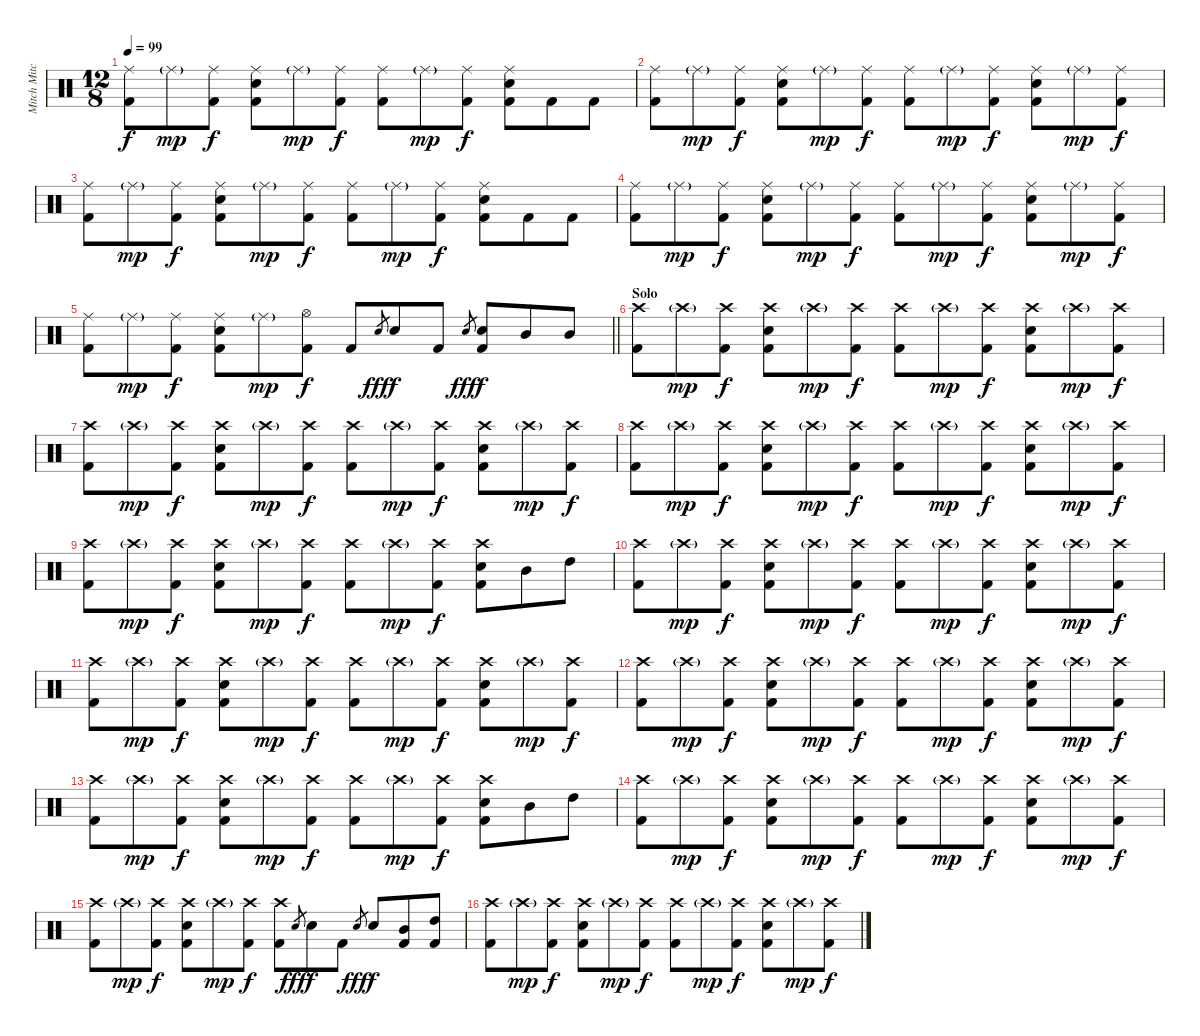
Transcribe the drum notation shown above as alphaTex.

\track ("Mitch Mitchell" "Mitch Mitc") {instrument percussion}
\staff {score}
\articulation defaults
\ts (12 8)
\tempo 99
\clef neutral
\ks c
("Ride (middle)" "Kick (hit) 2").8{dy f} "Ride (middle)"{g}.8{dy mp} ("Ride (middle)" "Kick (hit) 2").8{dy f} ("Ride (middle)" "Electric Snare (hit)" "Kick (hit) 2").8 "Ride (middle)"{g}.8{dy mp} ("Ride (middle)" "Kick (hit) 2").8{dy f} ("Ride (middle)" "Kick (hit) 2").8 "Ride (middle)"{g}.8{dy mp} ("Ride (middle)" "Kick (hit) 2").8{dy f} ("Ride (middle)" "Electric Snare (hit)" "Kick (hit) 2").8 "Kick (hit) 2".8 "Kick (hit) 2".8 |
("Ride (middle)" "Kick (hit) 2").8 "Ride (middle)"{g}.8{dy mp} ("Ride (middle)" "Kick (hit) 2").8{dy f} ("Ride (middle)" "Electric Snare (hit)" "Kick (hit) 2").8 "Ride (middle)"{g}.8{dy mp} ("Ride (middle)" "Kick (hit) 2").8{dy f} ("Ride (middle)" "Kick (hit) 2").8 "Ride (middle)"{g}.8{dy mp} ("Ride (middle)" "Kick (hit) 2").8{dy f} ("Ride (middle)" "Electric Snare (hit)" "Kick (hit) 2").8 "Ride (middle)"{g}.8{dy mp} ("Ride (middle)" "Kick (hit) 2").8{dy f} |
("Ride (middle)" "Kick (hit) 2").8 "Ride (middle)"{g}.8{dy mp} ("Ride (middle)" "Kick (hit) 2").8{dy f} ("Ride (middle)" "Electric Snare (hit)" "Kick (hit) 2").8 "Ride (middle)"{g}.8{dy mp} ("Ride (middle)" "Kick (hit) 2").8{dy f} ("Ride (middle)" "Kick (hit) 2").8 "Ride (middle)"{g}.8{dy mp} ("Ride (middle)" "Kick (hit) 2").8{dy f} ("Ride (middle)" "Electric Snare (hit)" "Kick (hit) 2").8 "Kick (hit) 2".8 "Kick (hit) 2".8 |
("Ride (middle)" "Kick (hit) 2").8 "Ride (middle)"{g}.8{dy mp} ("Ride (middle)" "Kick (hit) 2").8{dy f} ("Ride (middle)" "Electric Snare (hit)" "Kick (hit) 2").8 "Ride (middle)"{g}.8{dy mp} ("Ride (middle)" "Kick (hit) 2").8{dy f} ("Ride (middle)" "Kick (hit) 2").8 "Ride (middle)"{g}.8{dy mp} ("Ride (middle)" "Kick (hit) 2").8{dy f} ("Ride (middle)" "Electric Snare (hit)" "Kick (hit) 2").8 "Ride (middle)"{g}.8{dy mp} ("Ride (middle)" "Kick (hit) 2").8{dy f} |
\barLineRight lightlight
("Ride (middle)" "Kick (hit) 2").8 "Ride (middle)"{g}.8{dy mp} ("Ride (middle)" "Kick (hit) 2").8{dy f} ("Ride (middle)" "Electric Snare (hit)" "Kick (hit) 2").8 "Ride (middle)"{g}.8{dy mp} ("Hi-Hat (open)" "Kick (hit) 2").8{dy f} "Kick (hit) 2".8 "Electric Snare (hit)".8{gr dy fff} "Electric Snare (hit)".8{dy f} "Kick (hit) 2".8 "Electric Snare (hit)".8{gr dy fff} ("Electric Snare (hit)" "Kick (hit) 2").8{dy f} "Mid Tom (hit)".8 "Mid Tom (hit)".8 |
\section ("" "Solo")
("Crash high (hit)" "Kick (hit) 2").8 "Crash high (hit)"{g}.8{dy mp} ("Crash high (hit)" "Kick (hit) 2").8{dy f} ("Crash high (hit)" "Electric Snare (hit)" "Kick (hit) 2").8 "Crash high (hit)"{g}.8{dy mp} ("Crash high (hit)" "Kick (hit) 2").8{dy f} ("Crash high (hit)" "Kick (hit) 2").8 "Crash high (hit)"{g}.8{dy mp} ("Crash high (hit)" "Kick (hit) 2").8{dy f} ("Crash high (hit)" "Electric Snare (hit)" "Kick (hit) 2").8 "Crash high (hit)"{g}.8{dy mp} ("Crash high (hit)" "Kick (hit) 2").8{dy f} |
("Crash high (hit)" "Kick (hit) 2").8 "Crash high (hit)"{g}.8{dy mp} ("Crash high (hit)" "Kick (hit) 2").8{dy f} ("Crash high (hit)" "Electric Snare (hit)" "Kick (hit) 2").8 "Crash high (hit)"{g}.8{dy mp} ("Crash high (hit)" "Kick (hit) 2").8{dy f} ("Crash high (hit)" "Kick (hit) 2").8 "Crash high (hit)"{g}.8{dy mp} ("Crash high (hit)" "Kick (hit) 2").8{dy f} ("Crash high (hit)" "Electric Snare (hit)" "Kick (hit) 2").8 "Crash high (hit)"{g}.8{dy mp} ("Crash high (hit)" "Kick (hit) 2").8{dy f} |
("Crash high (hit)" "Kick (hit) 2").8 "Crash high (hit)"{g}.8{dy mp} ("Crash high (hit)" "Kick (hit) 2").8{dy f} ("Crash high (hit)" "Electric Snare (hit)" "Kick (hit) 2").8 "Crash high (hit)"{g}.8{dy mp} ("Crash high (hit)" "Kick (hit) 2").8{dy f} ("Crash high (hit)" "Kick (hit) 2").8 "Crash high (hit)"{g}.8{dy mp} ("Crash high (hit)" "Kick (hit) 2").8{dy f} ("Crash high (hit)" "Electric Snare (hit)" "Kick (hit) 2").8 "Crash high (hit)"{g}.8{dy mp} ("Crash high (hit)" "Kick (hit) 2").8{dy f} |
("Crash high (hit)" "Kick (hit) 2").8 "Crash high (hit)"{g}.8{dy mp} ("Crash high (hit)" "Kick (hit) 2").8{dy f} ("Crash high (hit)" "Electric Snare (hit)" "Kick (hit) 2").8 "Crash high (hit)"{g}.8{dy mp} ("Crash high (hit)" "Kick (hit) 2").8{dy f} ("Crash high (hit)" "Kick (hit) 2").8 "Crash high (hit)"{g}.8{dy mp} ("Crash high (hit)" "Kick (hit) 2").8{dy f} ("Crash high (hit)" "Electric Snare (hit)" "Kick (hit) 2").8 "Mid Tom (hit)".8 "High Tom (hit)".8 |
("Crash high (hit)" "Kick (hit) 2").8 "Crash high (hit)"{g}.8{dy mp} ("Crash high (hit)" "Kick (hit) 2").8{dy f} ("Crash high (hit)" "Electric Snare (hit)" "Kick (hit) 2").8 "Crash high (hit)"{g}.8{dy mp} ("Crash high (hit)" "Kick (hit) 2").8{dy f} ("Crash high (hit)" "Kick (hit) 2").8 "Crash high (hit)"{g}.8{dy mp} ("Crash high (hit)" "Kick (hit) 2").8{dy f} ("Crash high (hit)" "Electric Snare (hit)" "Kick (hit) 2").8 "Crash high (hit)"{g}.8{dy mp} ("Crash high (hit)" "Kick (hit) 2").8{dy f} |
("Crash high (hit)" "Kick (hit) 2").8 "Crash high (hit)"{g}.8{dy mp} ("Crash high (hit)" "Kick (hit) 2").8{dy f} ("Crash high (hit)" "Electric Snare (hit)" "Kick (hit) 2").8 "Crash high (hit)"{g}.8{dy mp} ("Crash high (hit)" "Kick (hit) 2").8{dy f} ("Crash high (hit)" "Kick (hit) 2").8 "Crash high (hit)"{g}.8{dy mp} ("Crash high (hit)" "Kick (hit) 2").8{dy f} ("Crash high (hit)" "Electric Snare (hit)" "Kick (hit) 2").8 "Crash high (hit)"{g}.8{dy mp} ("Crash high (hit)" "Kick (hit) 2").8{dy f} |
("Crash high (hit)" "Kick (hit) 2").8 "Crash high (hit)"{g}.8{dy mp} ("Crash high (hit)" "Kick (hit) 2").8{dy f} ("Crash high (hit)" "Electric Snare (hit)" "Kick (hit) 2").8 "Crash high (hit)"{g}.8{dy mp} ("Crash high (hit)" "Kick (hit) 2").8{dy f} ("Crash high (hit)" "Kick (hit) 2").8 "Crash high (hit)"{g}.8{dy mp} ("Crash high (hit)" "Kick (hit) 2").8{dy f} ("Crash high (hit)" "Electric Snare (hit)" "Kick (hit) 2").8 "Crash high (hit)"{g}.8{dy mp} ("Crash high (hit)" "Kick (hit) 2").8{dy f} |
("Crash high (hit)" "Kick (hit) 2").8 "Crash high (hit)"{g}.8{dy mp} ("Crash high (hit)" "Kick (hit) 2").8{dy f} ("Crash high (hit)" "Electric Snare (hit)" "Kick (hit) 2").8 "Crash high (hit)"{g}.8{dy mp} ("Crash high (hit)" "Kick (hit) 2").8{dy f} ("Crash high (hit)" "Kick (hit) 2").8 "Crash high (hit)"{g}.8{dy mp} ("Crash high (hit)" "Kick (hit) 2").8{dy f} ("Crash high (hit)" "Electric Snare (hit)" "Kick (hit) 2").8 "Mid Tom (hit)".8 "High Tom (hit)".8 |
("Crash high (hit)" "Kick (hit) 2").8 "Crash high (hit)"{g}.8{dy mp} ("Crash high (hit)" "Kick (hit) 2").8{dy f} ("Crash high (hit)" "Electric Snare (hit)" "Kick (hit) 2").8 "Crash high (hit)"{g}.8{dy mp} ("Crash high (hit)" "Kick (hit) 2").8{dy f} ("Crash high (hit)" "Kick (hit) 2").8 "Crash high (hit)"{g}.8{dy mp} ("Crash high (hit)" "Kick (hit) 2").8{dy f} ("Crash high (hit)" "Electric Snare (hit)" "Kick (hit) 2").8 "Crash high (hit)"{g}.8{dy mp} ("Crash high (hit)" "Kick (hit) 2").8{dy f} |
("Crash high (hit)" "Kick (hit) 2").8 "Crash high (hit)"{g}.8{dy mp} ("Crash high (hit)" "Kick (hit) 2").8{dy f} ("Crash high (hit)" "Electric Snare (hit)" "Kick (hit) 2").8 "Crash high (hit)"{g}.8{dy mp} ("Crash high (hit)" "Kick (hit) 2").8{dy f} ("Crash high (hit)" "Kick (hit) 2").8 "Electric Snare (hit)".8{gr dy fff} "Electric Snare (hit)".8{dy f} "Kick (hit) 2".8 "Electric Snare (hit)".8{gr dy fff} "Electric Snare (hit)".8{dy f} ("Mid Tom (hit)" "Kick (hit) 2").8 ("High Tom (hit)" "Kick (hit) 2").8 |
("Crash high (hit)" "Kick (hit) 2").8 "Crash high (hit)"{g}.8{dy mp} ("Crash high (hit)" "Kick (hit) 2").8{dy f} ("Crash high (hit)" "Electric Snare (hit)" "Kick (hit) 2").8 "Crash high (hit)"{g}.8{dy mp} ("Crash high (hit)" "Kick (hit) 2").8{dy f} ("Crash high (hit)" "Kick (hit) 2").8 "Crash high (hit)"{g}.8{dy mp} ("Crash high (hit)" "Kick (hit) 2").8{dy f} ("Crash high (hit)" "Electric Snare (hit)" "Kick (hit) 2").8 "Crash high (hit)"{g}.8{dy mp} ("Crash high (hit)" "Kick (hit) 2").8{dy f}
